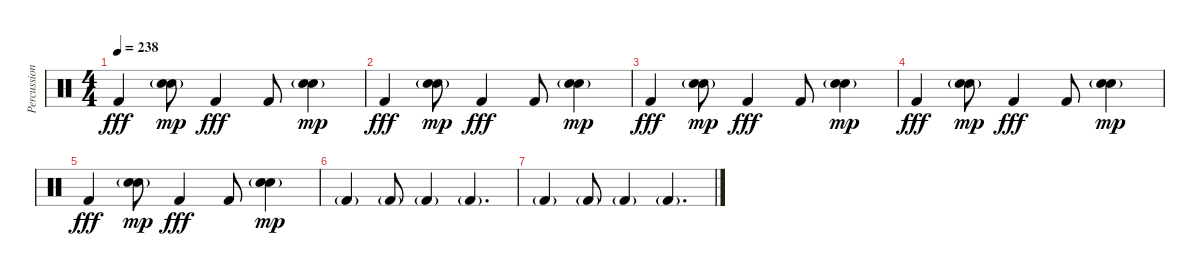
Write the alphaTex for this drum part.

\track ("Percussion" "Percussion") {instrument percussion}
\staff {score}
\articulation defaults
\ts (4 4)
\tempo 238
\clef neutral
\ks c "Kick (hit) 2".4{dy fff}
("Hand Clap (hit)"{g} "Hand Clap (hit)"{g}).8{bd 480 dy mp} "Kick (hit) 2".4{dy fff} "Kick (hit) 2".8 ("Hand Clap (hit)"{g} "Hand Clap (hit)"{g}).4{bd 480 dy mp} |
"Kick (hit) 2".4{dy fff} ("Hand Clap (hit)"{g} "Hand Clap (hit)"{g}).8{bd 480 dy mp} "Kick (hit) 2".4{dy fff} "Kick (hit) 2".8 ("Hand Clap (hit)"{g} "Hand Clap (hit)"{g}).4{bd 480 dy mp} |
"Kick (hit) 2".4{dy fff} ("Hand Clap (hit)"{g} "Hand Clap (hit)"{g}).8{bd 480 dy mp} "Kick (hit) 2".4{dy fff} "Kick (hit) 2".8 ("Hand Clap (hit)"{g} "Hand Clap (hit)"{g}).4{bd 480 dy mp} |
"Kick (hit) 2".4{dy fff} ("Hand Clap (hit)"{g} "Hand Clap (hit)"{g}).8{bd 480 dy mp} "Kick (hit) 2".4{dy fff} "Kick (hit) 2".8 ("Hand Clap (hit)"{g} "Hand Clap (hit)"{g}).4{bd 480 dy mp} |
"Kick (hit) 2".4{dy fff} ("Hand Clap (hit)"{g} "Hand Clap (hit)"{g}).8{bd 480 dy mp} "Kick (hit) 2".4{dy fff} "Kick (hit) 2".8 ("Hand Clap (hit)"{g} "Hand Clap (hit)"{g}).4{bd 480 dy mp} |
"Kick (hit) 2"{g}.4 "Kick (hit) 2"{g}.8 "Kick (hit) 2"{g}.4 "Kick (hit) 2"{g}.4{d} |
"Kick (hit) 2"{g}.4 "Kick (hit) 2"{g}.8 "Kick (hit) 2"{g}.4 "Kick (hit) 2"{g}.4{d}
